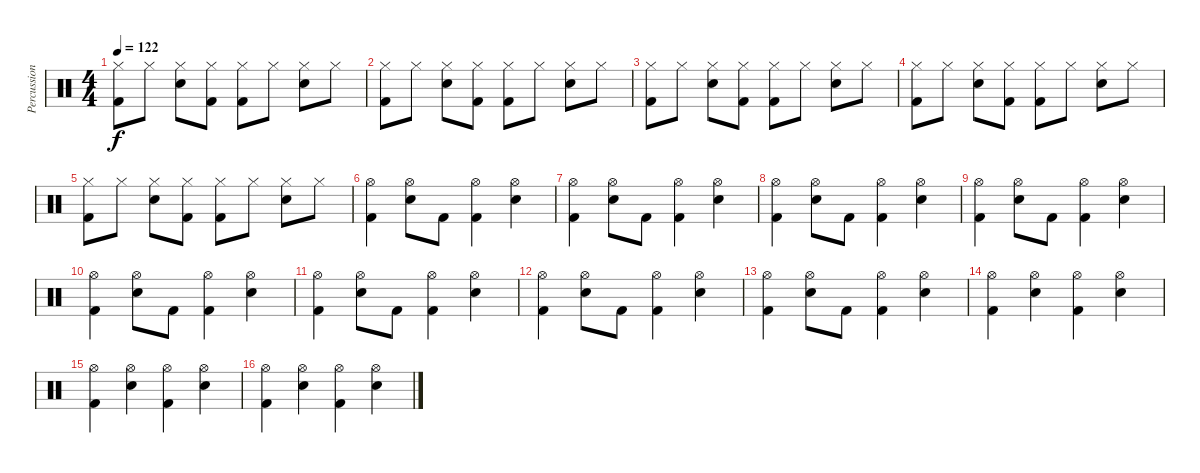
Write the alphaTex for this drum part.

\track ("Percussion" "Percussion") {instrument percussion}
\staff {score}
\articulation defaults
\ts (4 4)
\tempo 122
\clef neutral
\ks c
("Hi-Hat (closed)" "Kick (hit) 2").8{dy f} "Hi-Hat (closed)".8 ("Hi-Hat (closed)" "Electric Snare (hit)").8 ("Hi-Hat (closed)" "Kick (hit) 2").8 ("Hi-Hat (closed)" "Kick (hit) 2").8 "Hi-Hat (closed)".8 ("Hi-Hat (closed)" "Electric Snare (hit)").8 "Hi-Hat (closed)".8 |
("Hi-Hat (closed)" "Kick (hit) 2").8 "Hi-Hat (closed)".8 ("Hi-Hat (closed)" "Electric Snare (hit)").8 ("Hi-Hat (closed)" "Kick (hit) 2").8 ("Hi-Hat (closed)" "Kick (hit) 2").8 "Hi-Hat (closed)".8 ("Hi-Hat (closed)" "Electric Snare (hit)").8 "Hi-Hat (closed)".8 |
("Hi-Hat (closed)" "Kick (hit) 2").8 "Hi-Hat (closed)".8 ("Hi-Hat (closed)" "Electric Snare (hit)").8 ("Hi-Hat (closed)" "Kick (hit) 2").8 ("Hi-Hat (closed)" "Kick (hit) 2").8 "Hi-Hat (closed)".8 ("Hi-Hat (closed)" "Electric Snare (hit)").8 "Hi-Hat (closed)".8 |
("Hi-Hat (closed)" "Kick (hit) 2").8 "Hi-Hat (closed)".8 ("Hi-Hat (closed)" "Electric Snare (hit)").8 ("Hi-Hat (closed)" "Kick (hit) 2").8 ("Hi-Hat (closed)" "Kick (hit) 2").8 "Hi-Hat (closed)".8 ("Hi-Hat (closed)" "Electric Snare (hit)").8 "Hi-Hat (closed)".8 |
("Hi-Hat (closed)" "Kick (hit) 2").8 "Hi-Hat (closed)".8 ("Hi-Hat (closed)" "Electric Snare (hit)").8 ("Hi-Hat (closed)" "Kick (hit) 2").8 ("Hi-Hat (closed)" "Kick (hit) 2").8 "Hi-Hat (closed)".8 ("Hi-Hat (closed)" "Electric Snare (hit)").8 "Hi-Hat (closed)".8 |
("Hi-Hat (open)" "Kick (hit) 2").4 ("Hi-Hat (open)" "Electric Snare (hit)").8 "Kick (hit) 2".8 ("Hi-Hat (open)" "Kick (hit) 2").4 ("Hi-Hat (open)" "Electric Snare (hit)").4 |
("Hi-Hat (open)" "Kick (hit) 2").4 ("Hi-Hat (open)" "Electric Snare (hit)").8 "Kick (hit) 2".8 ("Hi-Hat (open)" "Kick (hit) 2").4 ("Hi-Hat (open)" "Electric Snare (hit)").4 |
("Hi-Hat (open)" "Kick (hit) 2").4 ("Hi-Hat (open)" "Electric Snare (hit)").8 "Kick (hit) 2".8 ("Hi-Hat (open)" "Kick (hit) 2").4 ("Hi-Hat (open)" "Electric Snare (hit)").4 |
("Hi-Hat (open)" "Kick (hit) 2").4 ("Hi-Hat (open)" "Electric Snare (hit)").8 "Kick (hit) 2".8 ("Hi-Hat (open)" "Kick (hit) 2").4 ("Hi-Hat (open)" "Electric Snare (hit)").4 |
("Hi-Hat (open)" "Kick (hit) 2").4 ("Hi-Hat (open)" "Electric Snare (hit)").8 "Kick (hit) 2".8 ("Hi-Hat (open)" "Kick (hit) 2").4 ("Hi-Hat (open)" "Electric Snare (hit)").4 |
("Hi-Hat (open)" "Kick (hit) 2").4 ("Hi-Hat (open)" "Electric Snare (hit)").8 "Kick (hit) 2".8 ("Hi-Hat (open)" "Kick (hit) 2").4 ("Hi-Hat (open)" "Electric Snare (hit)").4 |
("Hi-Hat (open)" "Kick (hit) 2").4 ("Hi-Hat (open)" "Electric Snare (hit)").8 "Kick (hit) 2".8 ("Hi-Hat (open)" "Kick (hit) 2").4 ("Hi-Hat (open)" "Electric Snare (hit)").4 |
("Hi-Hat (open)" "Kick (hit) 2").4 ("Hi-Hat (open)" "Electric Snare (hit)").8 "Kick (hit) 2".8 ("Hi-Hat (open)" "Kick (hit) 2").4 ("Hi-Hat (open)" "Electric Snare (hit)").4 |
("Hi-Hat (open)" "Kick (hit) 2").4 ("Hi-Hat (open)" "Electric Snare (hit)").4 ("Hi-Hat (open)" "Kick (hit) 2").4 ("Hi-Hat (open)" "Electric Snare (hit)").4 |
("Hi-Hat (open)" "Kick (hit) 2").4 ("Hi-Hat (open)" "Electric Snare (hit)").4 ("Hi-Hat (open)" "Kick (hit) 2").4 ("Hi-Hat (open)" "Electric Snare (hit)").4 |
("Hi-Hat (open)" "Kick (hit) 2").4 ("Hi-Hat (open)" "Electric Snare (hit)").4 ("Hi-Hat (open)" "Kick (hit) 2").4 ("Hi-Hat (open)" "Electric Snare (hit)").4
